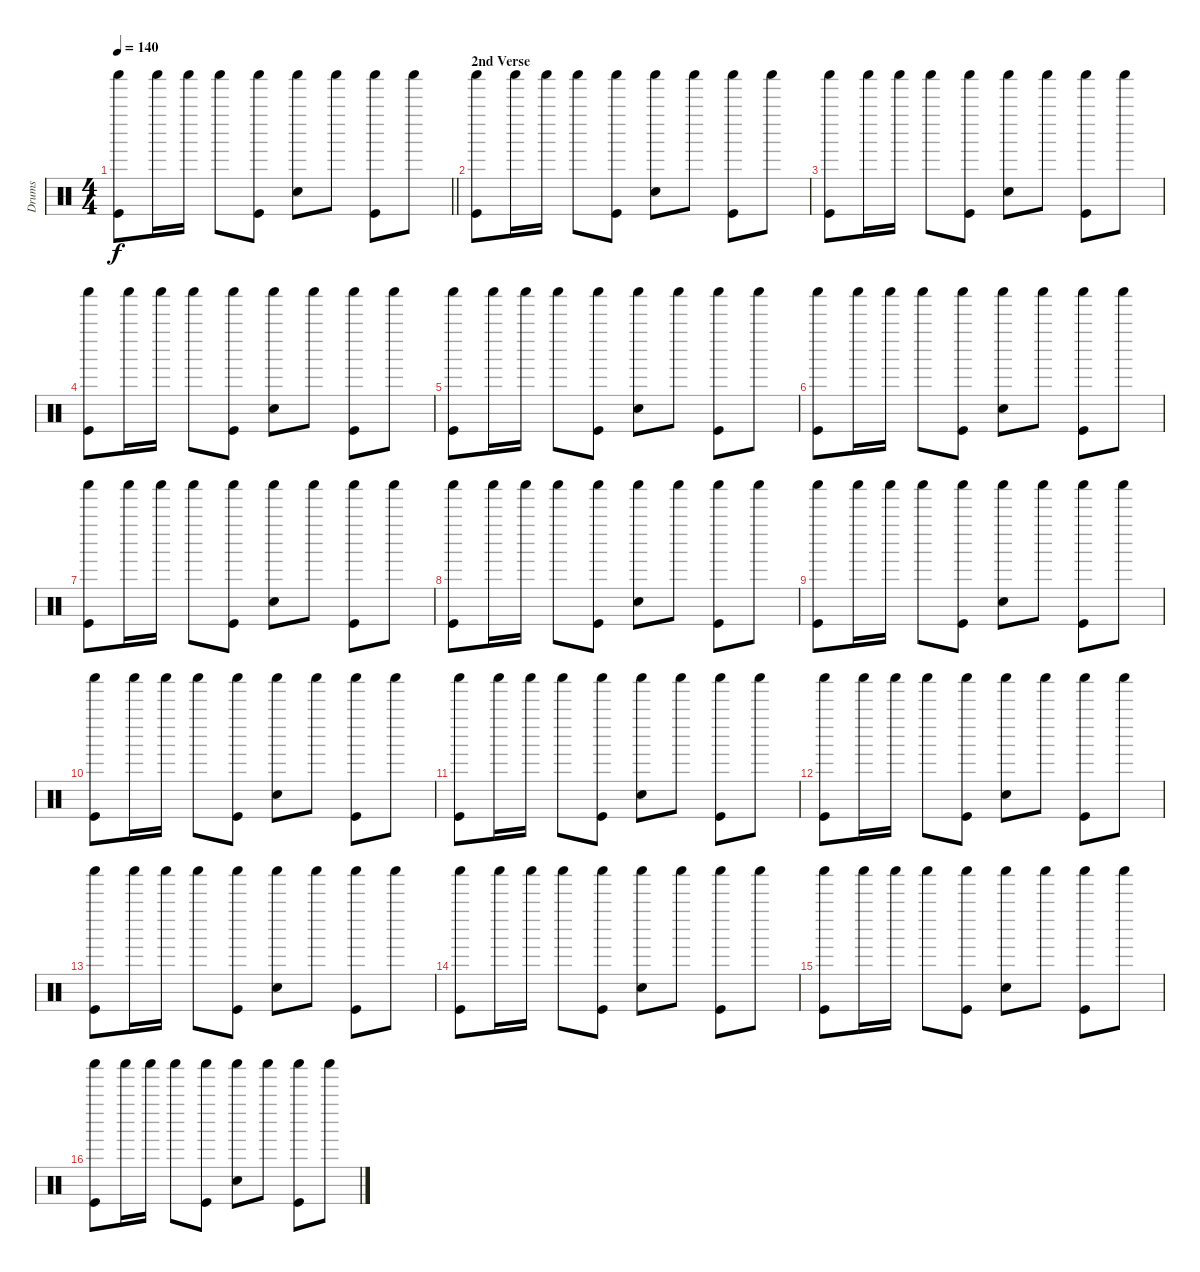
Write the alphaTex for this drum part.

\track ("Drums" "Drums") {instrument percussion}
\staff {score}
\articulation defaults
\ts (4 4)
\tempo 140
\clef neutral
\barLineRight lightlight
\ks c
("Shaker (hit)" "Kick (hit)").8{dy f} "Shaker (hit)".16 "Shaker (hit)".16 "Shaker (hit)".8 ("Shaker (hit)" "Kick (hit)").8 ("Shaker (hit)" "Hand Clap (hit)").8 "Shaker (hit)".8 ("Shaker (hit)" "Kick (hit)").8 "Shaker (hit)".8 |
\section ("" "2nd Verse")
("Shaker (hit)" "Kick (hit)").8 "Shaker (hit)".16 "Shaker (hit)".16 "Shaker (hit)".8 ("Shaker (hit)" "Kick (hit)").8 ("Shaker (hit)" "Hand Clap (hit)").8 "Shaker (hit)".8 ("Shaker (hit)" "Kick (hit)").8 "Shaker (hit)".8 |
("Shaker (hit)" "Kick (hit)").8 "Shaker (hit)".16 "Shaker (hit)".16 "Shaker (hit)".8 ("Shaker (hit)" "Kick (hit)").8 ("Shaker (hit)" "Hand Clap (hit)").8 "Shaker (hit)".8 ("Shaker (hit)" "Kick (hit)").8 "Shaker (hit)".8 |
("Shaker (hit)" "Kick (hit)").8 "Shaker (hit)".16 "Shaker (hit)".16 "Shaker (hit)".8 ("Shaker (hit)" "Kick (hit)").8 ("Shaker (hit)" "Hand Clap (hit)").8 "Shaker (hit)".8 ("Shaker (hit)" "Kick (hit)").8 "Shaker (hit)".8 |
("Shaker (hit)" "Kick (hit)").8 "Shaker (hit)".16 "Shaker (hit)".16 "Shaker (hit)".8 ("Shaker (hit)" "Kick (hit)").8 ("Shaker (hit)" "Hand Clap (hit)").8 "Shaker (hit)".8 ("Shaker (hit)" "Kick (hit)").8 "Shaker (hit)".8 |
("Shaker (hit)" "Kick (hit)").8 "Shaker (hit)".16 "Shaker (hit)".16 "Shaker (hit)".8 ("Shaker (hit)" "Kick (hit)").8 ("Shaker (hit)" "Hand Clap (hit)").8 "Shaker (hit)".8 ("Shaker (hit)" "Kick (hit)").8 "Shaker (hit)".8 |
("Shaker (hit)" "Kick (hit)").8 "Shaker (hit)".16 "Shaker (hit)".16 "Shaker (hit)".8 ("Shaker (hit)" "Kick (hit)").8 ("Shaker (hit)" "Hand Clap (hit)").8 "Shaker (hit)".8 ("Shaker (hit)" "Kick (hit)").8 "Shaker (hit)".8 |
("Shaker (hit)" "Kick (hit)").8 "Shaker (hit)".16 "Shaker (hit)".16 "Shaker (hit)".8 ("Shaker (hit)" "Kick (hit)").8 ("Shaker (hit)" "Hand Clap (hit)").8 "Shaker (hit)".8 ("Shaker (hit)" "Kick (hit)").8 "Shaker (hit)".8 |
("Shaker (hit)" "Kick (hit)").8 "Shaker (hit)".16 "Shaker (hit)".16 "Shaker (hit)".8 ("Shaker (hit)" "Kick (hit)").8 ("Shaker (hit)" "Hand Clap (hit)").8 "Shaker (hit)".8 ("Shaker (hit)" "Kick (hit)").8 "Shaker (hit)".8 |
("Shaker (hit)" "Kick (hit)").8 "Shaker (hit)".16 "Shaker (hit)".16 "Shaker (hit)".8 ("Shaker (hit)" "Kick (hit)").8 ("Shaker (hit)" "Hand Clap (hit)").8 "Shaker (hit)".8 ("Shaker (hit)" "Kick (hit)").8 "Shaker (hit)".8 |
("Shaker (hit)" "Kick (hit)").8 "Shaker (hit)".16 "Shaker (hit)".16 "Shaker (hit)".8 ("Shaker (hit)" "Kick (hit)").8 ("Shaker (hit)" "Hand Clap (hit)").8 "Shaker (hit)".8 ("Shaker (hit)" "Kick (hit)").8 "Shaker (hit)".8 |
("Shaker (hit)" "Kick (hit)").8 "Shaker (hit)".16 "Shaker (hit)".16 "Shaker (hit)".8 ("Shaker (hit)" "Kick (hit)").8 ("Shaker (hit)" "Hand Clap (hit)").8 "Shaker (hit)".8 ("Shaker (hit)" "Kick (hit)").8 "Shaker (hit)".8 |
("Shaker (hit)" "Kick (hit)").8 "Shaker (hit)".16 "Shaker (hit)".16 "Shaker (hit)".8 ("Shaker (hit)" "Kick (hit)").8 ("Shaker (hit)" "Hand Clap (hit)").8 "Shaker (hit)".8 ("Shaker (hit)" "Kick (hit)").8 "Shaker (hit)".8 |
("Shaker (hit)" "Kick (hit)").8 "Shaker (hit)".16 "Shaker (hit)".16 "Shaker (hit)".8 ("Shaker (hit)" "Kick (hit)").8 ("Shaker (hit)" "Hand Clap (hit)").8 "Shaker (hit)".8 ("Shaker (hit)" "Kick (hit)").8 "Shaker (hit)".8 |
("Shaker (hit)" "Kick (hit)").8 "Shaker (hit)".16 "Shaker (hit)".16 "Shaker (hit)".8 ("Shaker (hit)" "Kick (hit)").8 ("Shaker (hit)" "Hand Clap (hit)").8 "Shaker (hit)".8 ("Shaker (hit)" "Kick (hit)").8 "Shaker (hit)".8 |
("Shaker (hit)" "Kick (hit)").8 "Shaker (hit)".16 "Shaker (hit)".16 "Shaker (hit)".8 ("Shaker (hit)" "Kick (hit)").8 ("Shaker (hit)" "Hand Clap (hit)").8 "Shaker (hit)".8 ("Shaker (hit)" "Kick (hit)").8 "Shaker (hit)".8
